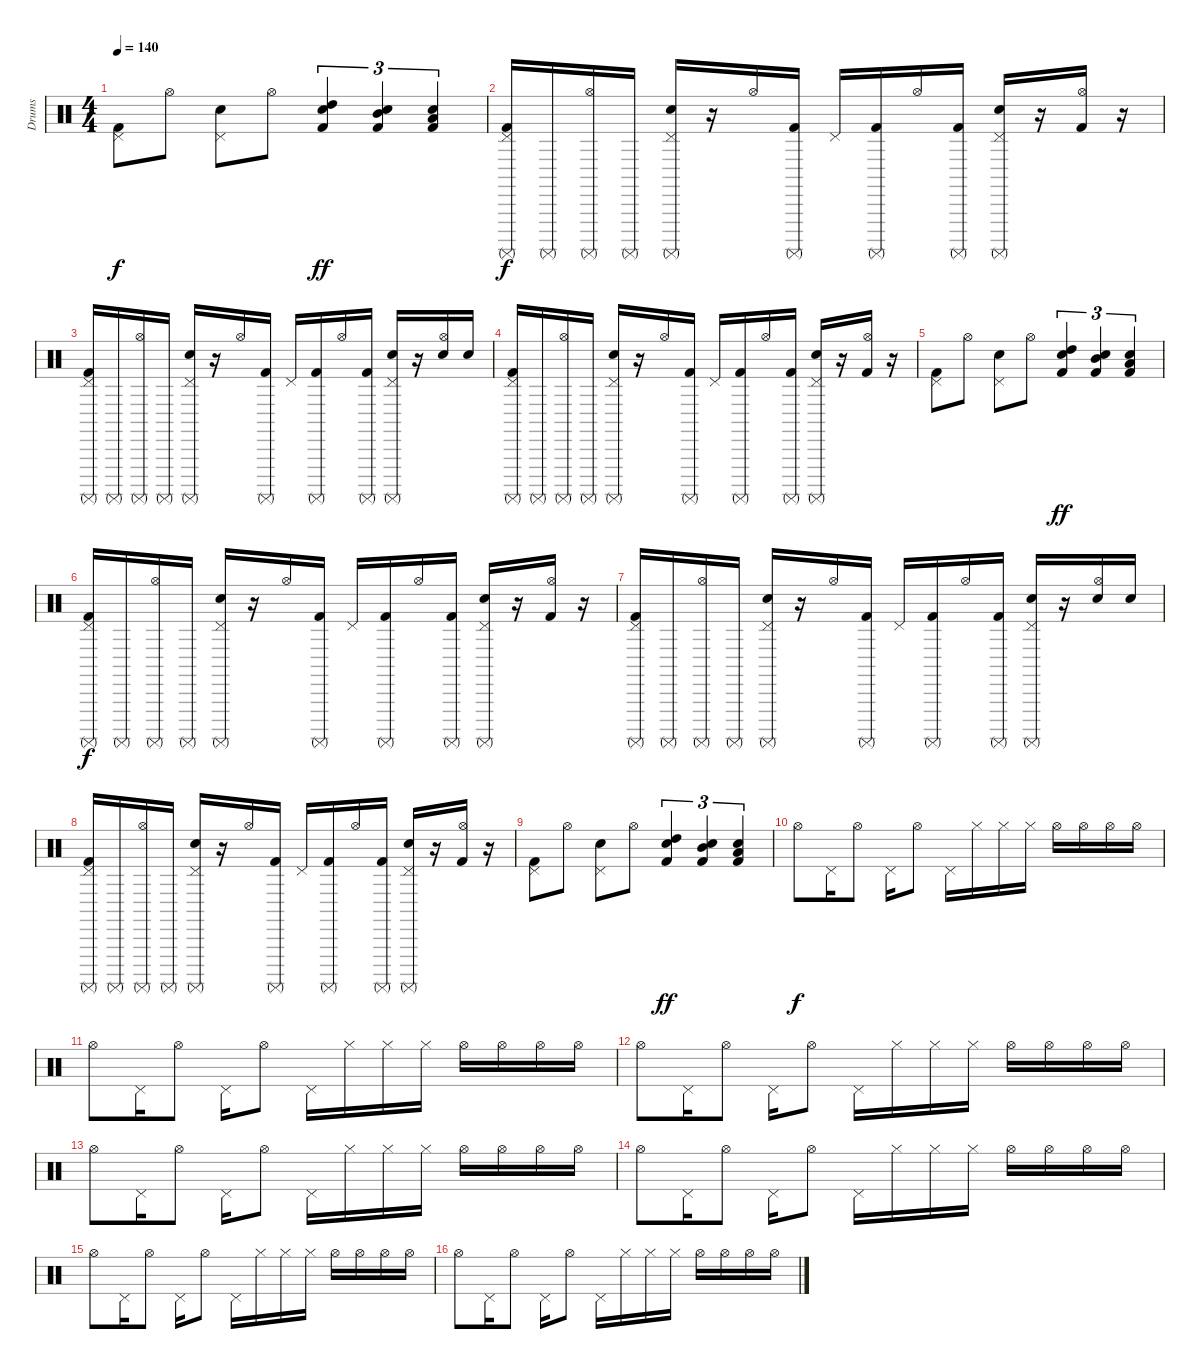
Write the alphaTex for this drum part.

\track ("Drums" "Drums") {instrument percussion}
\staff {score}
\articulation defaults
\ts (4 4)
\tempo 140
\clef neutral
\ks c
("Pedal Hi-Hat (hit)" "Kick (hit) 2").8{dy f} "Hi-Hat (open)".8 ("Pedal Hi-Hat (hit)" "Electric Snare (hit)").8 "Hi-Hat (open)".8 ("High Tom (hit)" "Electric Snare (hit)" "Kick (hit) 2").4{tu (3 2) dy ff} ("Mid Tom (hit)" "Electric Snare (hit)" "Kick (hit) 2").4{tu (3 2)} ("Low Tom (hit)" "Electric Snare (hit)" "Kick (hit) 2").4{tu (3 2)} |
("Surdo (mute)" "Pedal Hi-Hat (hit)" "Kick (hit) 2").16{dy f} "Surdo (mute)".16 ("Surdo (mute)" "Hi-Hat (open)").16 "Surdo (mute)".16 ("Surdo (mute)" "Electric Snare (hit)" "Pedal Hi-Hat (hit)").16 r.16 "Hi-Hat (open)".16 ("Surdo (mute)" "Kick (hit) 2").16 "Pedal Hi-Hat (hit)".16 ("Surdo (mute)" "Kick (hit) 2").16 "Hi-Hat (open)".16 ("Surdo (mute)" "Kick (hit) 2").16 ("Surdo (mute)" "Electric Snare (hit)" "Pedal Hi-Hat (hit)").16 r.16 ("Hi-Hat (open)" "Kick (hit) 2").16 r.16 |
("Surdo (mute)" "Pedal Hi-Hat (hit)" "Kick (hit) 2").16 "Surdo (mute)".16 ("Surdo (mute)" "Hi-Hat (open)").16 "Surdo (mute)".16 ("Surdo (mute)" "Electric Snare (hit)" "Pedal Hi-Hat (hit)").16 r.16 "Hi-Hat (open)".16 ("Surdo (mute)" "Kick (hit) 2").16 "Pedal Hi-Hat (hit)".16 ("Surdo (mute)" "Kick (hit) 2").16 "Hi-Hat (open)".16 ("Surdo (mute)" "Kick (hit) 2").16 ("Surdo (mute)" "Electric Snare (hit)" "Pedal Hi-Hat (hit)").16 r.16 ("Electric Snare (hit)" "Hi-Hat (open)").16 "Electric Snare (hit)".16 |
("Surdo (mute)" "Pedal Hi-Hat (hit)" "Kick (hit) 2").16 "Surdo (mute)".16 ("Surdo (mute)" "Hi-Hat (open)").16 "Surdo (mute)".16 ("Surdo (mute)" "Electric Snare (hit)" "Pedal Hi-Hat (hit)").16 r.16 "Hi-Hat (open)".16 ("Surdo (mute)" "Kick (hit) 2").16 "Pedal Hi-Hat (hit)".16 ("Surdo (mute)" "Kick (hit) 2").16 "Hi-Hat (open)".16 ("Surdo (mute)" "Kick (hit) 2").16 ("Surdo (mute)" "Electric Snare (hit)" "Pedal Hi-Hat (hit)").16 r.16 ("Hi-Hat (open)" "Kick (hit) 2").16 r.16 |
("Pedal Hi-Hat (hit)" "Kick (hit) 2").8 "Hi-Hat (open)".8 ("Pedal Hi-Hat (hit)" "Electric Snare (hit)").8 "Hi-Hat (open)".8 ("High Tom (hit)" "Electric Snare (hit)" "Kick (hit) 2").4{tu (3 2) dy ff} ("Mid Tom (hit)" "Electric Snare (hit)" "Kick (hit) 2").4{tu (3 2)} ("Low Tom (hit)" "Electric Snare (hit)" "Kick (hit) 2").4{tu (3 2)} |
("Surdo (mute)" "Pedal Hi-Hat (hit)" "Kick (hit) 2").16{dy f} "Surdo (mute)".16 ("Surdo (mute)" "Hi-Hat (open)").16 "Surdo (mute)".16 ("Surdo (mute)" "Electric Snare (hit)" "Pedal Hi-Hat (hit)").16 r.16 "Hi-Hat (open)".16 ("Surdo (mute)" "Kick (hit) 2").16 "Pedal Hi-Hat (hit)".16 ("Surdo (mute)" "Kick (hit) 2").16 "Hi-Hat (open)".16 ("Surdo (mute)" "Kick (hit) 2").16 ("Surdo (mute)" "Electric Snare (hit)" "Pedal Hi-Hat (hit)").16 r.16 ("Hi-Hat (open)" "Kick (hit) 2").16 r.16 |
("Surdo (mute)" "Pedal Hi-Hat (hit)" "Kick (hit) 2").16 "Surdo (mute)".16 ("Surdo (mute)" "Hi-Hat (open)").16 "Surdo (mute)".16 ("Surdo (mute)" "Electric Snare (hit)" "Pedal Hi-Hat (hit)").16 r.16 "Hi-Hat (open)".16 ("Surdo (mute)" "Kick (hit) 2").16 "Pedal Hi-Hat (hit)".16 ("Surdo (mute)" "Kick (hit) 2").16 "Hi-Hat (open)".16 ("Surdo (mute)" "Kick (hit) 2").16 ("Surdo (mute)" "Electric Snare (hit)" "Pedal Hi-Hat (hit)").16 r.16 ("Electric Snare (hit)" "Hi-Hat (open)").16 "Electric Snare (hit)".16 |
("Surdo (mute)" "Pedal Hi-Hat (hit)" "Kick (hit) 2").16 "Surdo (mute)".16 ("Surdo (mute)" "Hi-Hat (open)").16 "Surdo (mute)".16 ("Surdo (mute)" "Electric Snare (hit)" "Pedal Hi-Hat (hit)").16 r.16 "Hi-Hat (open)".16 ("Surdo (mute)" "Kick (hit) 2").16 "Pedal Hi-Hat (hit)".16 ("Surdo (mute)" "Kick (hit) 2").16 "Hi-Hat (open)".16 ("Surdo (mute)" "Kick (hit) 2").16 ("Surdo (mute)" "Electric Snare (hit)" "Pedal Hi-Hat (hit)").16 r.16 ("Hi-Hat (open)" "Kick (hit) 2").16 r.16 |
("Pedal Hi-Hat (hit)" "Kick (hit) 2").8 "Hi-Hat (open)".8 ("Pedal Hi-Hat (hit)" "Electric Snare (hit)").8 "Hi-Hat (open)".8 ("High Tom (hit)" "Electric Snare (hit)" "Kick (hit) 2").4{tu (3 2) dy ff} ("Mid Tom (hit)" "Electric Snare (hit)" "Kick (hit) 2").4{tu (3 2)} ("Low Tom (hit)" "Electric Snare (hit)" "Kick (hit) 2").4{tu (3 2)} |
"Hi-Hat (open)".8{dy f} "Pedal Hi-Hat (hit)".16 "Hi-Hat (open)".8 "Pedal Hi-Hat (hit)".16 "Hi-Hat (open)".8 "Pedal Hi-Hat (hit)".16 "Hi-Hat (closed)".16 "Hi-Hat (closed)".16 "Hi-Hat (closed)".16 "Hi-Hat (open)".16 "Hi-Hat (open)".16 "Hi-Hat (open)".16 "Hi-Hat (open)".16 |
"Hi-Hat (open)".8 "Pedal Hi-Hat (hit)".16 "Hi-Hat (open)".8 "Pedal Hi-Hat (hit)".16 "Hi-Hat (open)".8 "Pedal Hi-Hat (hit)".16 "Hi-Hat (closed)".16 "Hi-Hat (closed)".16 "Hi-Hat (closed)".16 "Hi-Hat (open)".16 "Hi-Hat (open)".16 "Hi-Hat (open)".16 "Hi-Hat (open)".16 |
"Hi-Hat (open)".8 "Pedal Hi-Hat (hit)".16 "Hi-Hat (open)".8 "Pedal Hi-Hat (hit)".16 "Hi-Hat (open)".8 "Pedal Hi-Hat (hit)".16 "Hi-Hat (closed)".16 "Hi-Hat (closed)".16 "Hi-Hat (closed)".16 "Hi-Hat (open)".16 "Hi-Hat (open)".16 "Hi-Hat (open)".16 "Hi-Hat (open)".16 |
"Hi-Hat (open)".8 "Pedal Hi-Hat (hit)".16 "Hi-Hat (open)".8 "Pedal Hi-Hat (hit)".16 "Hi-Hat (open)".8 "Pedal Hi-Hat (hit)".16 "Hi-Hat (closed)".16 "Hi-Hat (closed)".16 "Hi-Hat (closed)".16 "Hi-Hat (open)".16 "Hi-Hat (open)".16 "Hi-Hat (open)".16 "Hi-Hat (open)".16 |
"Hi-Hat (open)".8 "Pedal Hi-Hat (hit)".16 "Hi-Hat (open)".8 "Pedal Hi-Hat (hit)".16 "Hi-Hat (open)".8 "Pedal Hi-Hat (hit)".16 "Hi-Hat (closed)".16 "Hi-Hat (closed)".16 "Hi-Hat (closed)".16 "Hi-Hat (open)".16 "Hi-Hat (open)".16 "Hi-Hat (open)".16 "Hi-Hat (open)".16 |
"Hi-Hat (open)".8 "Pedal Hi-Hat (hit)".16 "Hi-Hat (open)".8 "Pedal Hi-Hat (hit)".16 "Hi-Hat (open)".8 "Pedal Hi-Hat (hit)".16 "Hi-Hat (closed)".16 "Hi-Hat (closed)".16 "Hi-Hat (closed)".16 "Hi-Hat (open)".16 "Hi-Hat (open)".16 "Hi-Hat (open)".16 "Hi-Hat (open)".16 |
"Hi-Hat (open)".8 "Pedal Hi-Hat (hit)".16 "Hi-Hat (open)".8 "Pedal Hi-Hat (hit)".16 "Hi-Hat (open)".8 "Pedal Hi-Hat (hit)".16 "Hi-Hat (closed)".16 "Hi-Hat (closed)".16 "Hi-Hat (closed)".16 "Hi-Hat (open)".16 "Hi-Hat (open)".16 "Hi-Hat (open)".16 "Hi-Hat (open)".16
